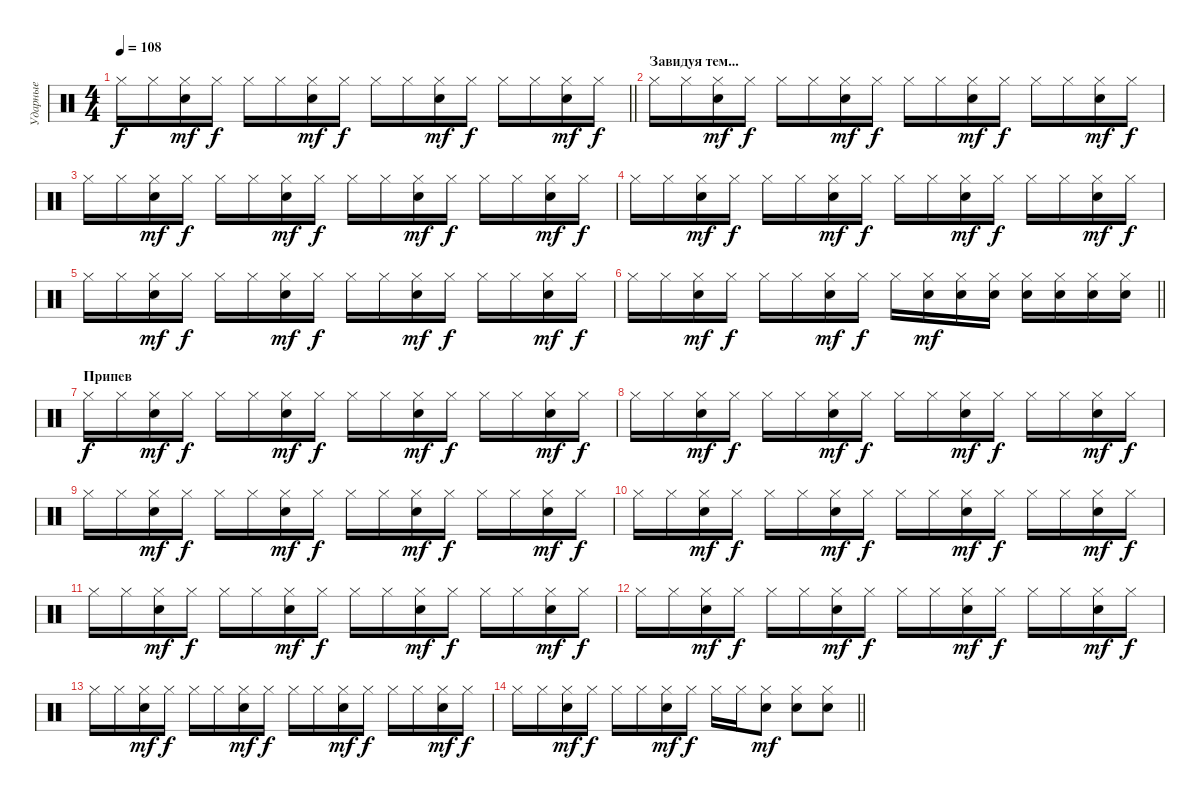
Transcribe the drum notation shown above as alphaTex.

\track ("Ударные" "Ударные") {instrument percussion}
\staff {score}
\articulation defaults
\ts (4 4)
\tempo 108
\clef neutral
\barLineRight lightlight
\ks c "Hi-Hat (closed)".16{dy f} "Hi-Hat (closed)".16
("Hi-Hat (closed)" "Snare (hit) 2").16{dy mf} "Hi-Hat (closed)".16{dy f} "Hi-Hat (closed)".16 "Hi-Hat (closed)".16 ("Hi-Hat (closed)" "Snare (hit) 2").16{dy mf} "Hi-Hat (closed)".16{dy f} "Hi-Hat (closed)".16 "Hi-Hat (closed)".16 ("Hi-Hat (closed)" "Snare (hit) 2").16{dy mf} "Hi-Hat (closed)".16{dy f} "Hi-Hat (closed)".16 "Hi-Hat (closed)".16 ("Hi-Hat (closed)" "Snare (hit) 2").16{dy mf} "Hi-Hat (closed)".16{dy f} |
\section ("" "Завидуя тем...")
"Hi-Hat (closed)".16 "Hi-Hat (closed)".16 ("Hi-Hat (closed)" "Snare (hit) 2").16{dy mf} "Hi-Hat (closed)".16{dy f} "Hi-Hat (closed)".16 "Hi-Hat (closed)".16 ("Hi-Hat (closed)" "Snare (hit) 2").16{dy mf} "Hi-Hat (closed)".16{dy f} "Hi-Hat (closed)".16 "Hi-Hat (closed)".16 ("Hi-Hat (closed)" "Snare (hit) 2").16{dy mf} "Hi-Hat (closed)".16{dy f} "Hi-Hat (closed)".16 "Hi-Hat (closed)".16 ("Hi-Hat (closed)" "Snare (hit) 2").16{dy mf} "Hi-Hat (closed)".16{dy f} |
"Hi-Hat (closed)".16 "Hi-Hat (closed)".16 ("Hi-Hat (closed)" "Snare (hit) 2").16{dy mf} "Hi-Hat (closed)".16{dy f} "Hi-Hat (closed)".16 "Hi-Hat (closed)".16 ("Hi-Hat (closed)" "Snare (hit) 2").16{dy mf} "Hi-Hat (closed)".16{dy f} "Hi-Hat (closed)".16 "Hi-Hat (closed)".16 ("Hi-Hat (closed)" "Snare (hit) 2").16{dy mf} "Hi-Hat (closed)".16{dy f} "Hi-Hat (closed)".16 "Hi-Hat (closed)".16 ("Hi-Hat (closed)" "Snare (hit) 2").16{dy mf} "Hi-Hat (closed)".16{dy f} |
"Hi-Hat (closed)".16 "Hi-Hat (closed)".16 ("Hi-Hat (closed)" "Snare (hit) 2").16{dy mf} "Hi-Hat (closed)".16{dy f} "Hi-Hat (closed)".16 "Hi-Hat (closed)".16 ("Hi-Hat (closed)" "Snare (hit) 2").16{dy mf} "Hi-Hat (closed)".16{dy f} "Hi-Hat (closed)".16 "Hi-Hat (closed)".16 ("Hi-Hat (closed)" "Snare (hit) 2").16{dy mf} "Hi-Hat (closed)".16{dy f} "Hi-Hat (closed)".16 "Hi-Hat (closed)".16 ("Hi-Hat (closed)" "Snare (hit) 2").16{dy mf} "Hi-Hat (closed)".16{dy f} |
"Hi-Hat (closed)".16 "Hi-Hat (closed)".16 ("Hi-Hat (closed)" "Snare (hit) 2").16{dy mf} "Hi-Hat (closed)".16{dy f} "Hi-Hat (closed)".16 "Hi-Hat (closed)".16 ("Hi-Hat (closed)" "Snare (hit) 2").16{dy mf} "Hi-Hat (closed)".16{dy f} "Hi-Hat (closed)".16 "Hi-Hat (closed)".16 ("Hi-Hat (closed)" "Snare (hit) 2").16{dy mf} "Hi-Hat (closed)".16{dy f} "Hi-Hat (closed)".16 "Hi-Hat (closed)".16 ("Hi-Hat (closed)" "Snare (hit) 2").16{dy mf} "Hi-Hat (closed)".16{dy f} |
\barLineRight lightlight "Hi-Hat (closed)".16 "Hi-Hat (closed)".16
("Hi-Hat (closed)" "Snare (hit) 2").16{dy mf} "Hi-Hat (closed)".16{dy f} "Hi-Hat (closed)".16 "Hi-Hat (closed)".16 ("Hi-Hat (closed)" "Snare (hit) 2").16{dy mf} "Hi-Hat (closed)".16{dy f} "Hi-Hat (closed)".16 ("Hi-Hat (closed)" "Snare (hit) 2").16{dy mf} ("Hi-Hat (closed)" "Snare (hit) 2").16 ("Hi-Hat (closed)" "Snare (hit) 2").16 ("Hi-Hat (closed)" "Snare (hit) 2").16 ("Hi-Hat (closed)" "Snare (hit) 2").16 ("Hi-Hat (closed)" "Snare (hit) 2").16 ("Hi-Hat (closed)" "Snare (hit) 2").16 |
\section ("" "Припев")
"Hi-Hat (closed)".16{dy f} "Hi-Hat (closed)".16 ("Hi-Hat (closed)" "Snare (hit) 2").16{dy mf} "Hi-Hat (closed)".16{dy f} "Hi-Hat (closed)".16 "Hi-Hat (closed)".16 ("Hi-Hat (closed)" "Snare (hit) 2").16{dy mf} "Hi-Hat (closed)".16{dy f} "Hi-Hat (closed)".16 "Hi-Hat (closed)".16 ("Hi-Hat (closed)" "Snare (hit) 2").16{dy mf} "Hi-Hat (closed)".16{dy f} "Hi-Hat (closed)".16 "Hi-Hat (closed)".16 ("Hi-Hat (closed)" "Snare (hit) 2").16{dy mf} "Hi-Hat (closed)".16{dy f} |
"Hi-Hat (closed)".16 "Hi-Hat (closed)".16 ("Hi-Hat (closed)" "Snare (hit) 2").16{dy mf} "Hi-Hat (closed)".16{dy f} "Hi-Hat (closed)".16 "Hi-Hat (closed)".16 ("Hi-Hat (closed)" "Snare (hit) 2").16{dy mf} "Hi-Hat (closed)".16{dy f} "Hi-Hat (closed)".16 "Hi-Hat (closed)".16 ("Hi-Hat (closed)" "Snare (hit) 2").16{dy mf} "Hi-Hat (closed)".16{dy f} "Hi-Hat (closed)".16 "Hi-Hat (closed)".16 ("Hi-Hat (closed)" "Snare (hit) 2").16{dy mf} "Hi-Hat (closed)".16{dy f} |
"Hi-Hat (closed)".16 "Hi-Hat (closed)".16 ("Hi-Hat (closed)" "Snare (hit) 2").16{dy mf} "Hi-Hat (closed)".16{dy f} "Hi-Hat (closed)".16 "Hi-Hat (closed)".16 ("Hi-Hat (closed)" "Snare (hit) 2").16{dy mf} "Hi-Hat (closed)".16{dy f} "Hi-Hat (closed)".16 "Hi-Hat (closed)".16 ("Hi-Hat (closed)" "Snare (hit) 2").16{dy mf} "Hi-Hat (closed)".16{dy f} "Hi-Hat (closed)".16 "Hi-Hat (closed)".16 ("Hi-Hat (closed)" "Snare (hit) 2").16{dy mf} "Hi-Hat (closed)".16{dy f} |
"Hi-Hat (closed)".16 "Hi-Hat (closed)".16 ("Hi-Hat (closed)" "Snare (hit) 2").16{dy mf} "Hi-Hat (closed)".16{dy f} "Hi-Hat (closed)".16 "Hi-Hat (closed)".16 ("Hi-Hat (closed)" "Snare (hit) 2").16{dy mf} "Hi-Hat (closed)".16{dy f} "Hi-Hat (closed)".16 "Hi-Hat (closed)".16 ("Hi-Hat (closed)" "Snare (hit) 2").16{dy mf} "Hi-Hat (closed)".16{dy f} "Hi-Hat (closed)".16 "Hi-Hat (closed)".16 ("Hi-Hat (closed)" "Snare (hit) 2").16{dy mf} "Hi-Hat (closed)".16{dy f} |
"Hi-Hat (closed)".16 "Hi-Hat (closed)".16 ("Hi-Hat (closed)" "Snare (hit) 2").16{dy mf} "Hi-Hat (closed)".16{dy f} "Hi-Hat (closed)".16 "Hi-Hat (closed)".16 ("Hi-Hat (closed)" "Snare (hit) 2").16{dy mf} "Hi-Hat (closed)".16{dy f} "Hi-Hat (closed)".16 "Hi-Hat (closed)".16 ("Hi-Hat (closed)" "Snare (hit) 2").16{dy mf} "Hi-Hat (closed)".16{dy f} "Hi-Hat (closed)".16 "Hi-Hat (closed)".16 ("Hi-Hat (closed)" "Snare (hit) 2").16{dy mf} "Hi-Hat (closed)".16{dy f} |
"Hi-Hat (closed)".16 "Hi-Hat (closed)".16 ("Hi-Hat (closed)" "Snare (hit) 2").16{dy mf} "Hi-Hat (closed)".16{dy f} "Hi-Hat (closed)".16 "Hi-Hat (closed)".16 ("Hi-Hat (closed)" "Snare (hit) 2").16{dy mf} "Hi-Hat (closed)".16{dy f} "Hi-Hat (closed)".16 "Hi-Hat (closed)".16 ("Hi-Hat (closed)" "Snare (hit) 2").16{dy mf} "Hi-Hat (closed)".16{dy f} "Hi-Hat (closed)".16 "Hi-Hat (closed)".16 ("Hi-Hat (closed)" "Snare (hit) 2").16{dy mf} "Hi-Hat (closed)".16{dy f} |
"Hi-Hat (closed)".16 "Hi-Hat (closed)".16 ("Hi-Hat (closed)" "Snare (hit) 2").16{dy mf} "Hi-Hat (closed)".16{dy f} "Hi-Hat (closed)".16 "Hi-Hat (closed)".16 ("Hi-Hat (closed)" "Snare (hit) 2").16{dy mf} "Hi-Hat (closed)".16{dy f} "Hi-Hat (closed)".16 "Hi-Hat (closed)".16 ("Hi-Hat (closed)" "Snare (hit) 2").16{dy mf} "Hi-Hat (closed)".16{dy f} "Hi-Hat (closed)".16 "Hi-Hat (closed)".16 ("Hi-Hat (closed)" "Snare (hit) 2").16{dy mf} "Hi-Hat (closed)".16{dy f} |
\barLineRight lightlight "Hi-Hat (closed)".16 "Hi-Hat (closed)".16
("Hi-Hat (closed)" "Snare (hit) 2").16{dy mf} "Hi-Hat (closed)".16{dy f} "Hi-Hat (closed)".16 "Hi-Hat (closed)".16 ("Hi-Hat (closed)" "Snare (hit) 2").16{dy mf} "Hi-Hat (closed)".16{dy f} "Hi-Hat (closed)".16 "Hi-Hat (closed)".16 ("Hi-Hat (closed)" "Snare (hit) 2").8{dy mf} ("Hi-Hat (closed)" "Snare (hit) 2").8 ("Hi-Hat (closed)" "Snare (hit) 2").8
